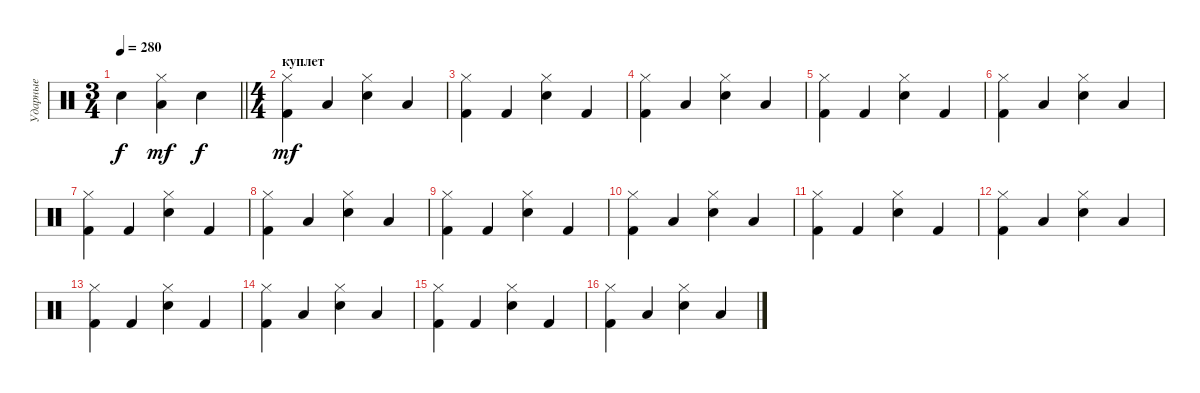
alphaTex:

\track ("Ударные" "Ударные") {instrument percussion}
\staff {score}
\articulation defaults
\ts (3 4)
\tempo 280
\clef neutral
\barLineRight lightlight
\ks c "Snare (hit) 2".4{dy f}
("Low Tom (hit)" "Hi-Hat (closed)").4{dy mf} "Snare (hit) 2".4{dy f} |
\ts (4 4)
\section ("" "куплет")
("Kick (hit) 2" "Hi-Hat (closed)").4{dy mf} "Low Floor Tom (hit)".4 ("Snare (hit) 2" "Hi-Hat (closed)").4 "Low Floor Tom (hit)".4 |
("Kick (hit) 2" "Hi-Hat (closed)").4 "Kick (hit) 2".4 ("Snare (hit) 2" "Hi-Hat (closed)").4 "Kick (hit) 2".4 |
("Kick (hit) 2" "Hi-Hat (closed)").4 "Low Floor Tom (hit)".4 ("Snare (hit) 2" "Hi-Hat (closed)").4 "Low Floor Tom (hit)".4 |
("Kick (hit) 2" "Hi-Hat (closed)").4 "Kick (hit) 2".4 ("Snare (hit) 2" "Hi-Hat (closed)").4 "Kick (hit) 2".4 |
("Kick (hit) 2" "Hi-Hat (closed)").4 "Low Floor Tom (hit)".4 ("Snare (hit) 2" "Hi-Hat (closed)").4 "Low Floor Tom (hit)".4 |
("Kick (hit) 2" "Hi-Hat (closed)").4 "Kick (hit) 2".4 ("Snare (hit) 2" "Hi-Hat (closed)").4 "Kick (hit) 2".4 |
("Kick (hit) 2" "Hi-Hat (closed)").4 "Low Floor Tom (hit)".4 ("Snare (hit) 2" "Hi-Hat (closed)").4 "Low Floor Tom (hit)".4 |
("Kick (hit) 2" "Hi-Hat (closed)").4 "Kick (hit) 2".4 ("Snare (hit) 2" "Hi-Hat (closed)").4 "Kick (hit) 2".4 |
("Kick (hit) 2" "Hi-Hat (closed)").4 "Low Floor Tom (hit)".4 ("Snare (hit) 2" "Hi-Hat (closed)").4 "Low Floor Tom (hit)".4 |
("Kick (hit) 2" "Hi-Hat (closed)").4 "Kick (hit) 2".4 ("Snare (hit) 2" "Hi-Hat (closed)").4 "Kick (hit) 2".4 |
("Kick (hit) 2" "Hi-Hat (closed)").4 "Low Floor Tom (hit)".4 ("Snare (hit) 2" "Hi-Hat (closed)").4 "Low Floor Tom (hit)".4 |
("Kick (hit) 2" "Hi-Hat (closed)").4 "Kick (hit) 2".4 ("Snare (hit) 2" "Hi-Hat (closed)").4 "Kick (hit) 2".4 |
("Kick (hit) 2" "Hi-Hat (closed)").4 "Low Floor Tom (hit)".4 ("Snare (hit) 2" "Hi-Hat (closed)").4 "Low Floor Tom (hit)".4 |
("Kick (hit) 2" "Hi-Hat (closed)").4 "Kick (hit) 2".4 ("Snare (hit) 2" "Hi-Hat (closed)").4 "Kick (hit) 2".4 |
("Kick (hit) 2" "Hi-Hat (closed)").4 "Low Floor Tom (hit)".4 ("Snare (hit) 2" "Hi-Hat (closed)").4 "Low Floor Tom (hit)".4
